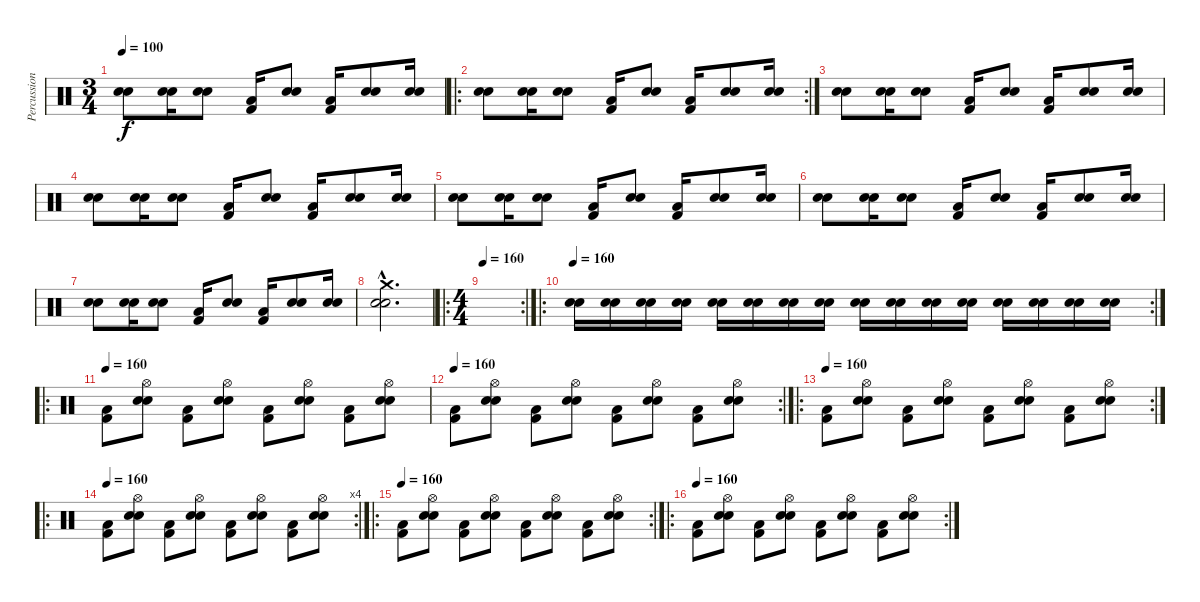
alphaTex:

\track ("Percussions" "Percussion") {instrument percussion}
\staff {score}
\articulation defaults
\ts (3 4)
\tempo 100
\clef neutral
\ks c
("Snare (hit) 2" "Electric Snare (hit)").8{dy f} ("Snare (hit) 2" "Electric Snare (hit)").16 ("Snare (hit) 2" "Electric Snare (hit)").8 ("Kick (hit) 2" "Low Floor Tom (hit)").16 ("Snare (hit) 2" "Electric Snare (hit)").8 ("Kick (hit) 2" "Low Floor Tom (hit)").16 ("Snare (hit) 2" "Electric Snare (hit)").8 ("Snare (hit) 2" "Electric Snare (hit)").16 |
\ro
\rc 2
("Snare (hit) 2" "Electric Snare (hit)").8 ("Snare (hit) 2" "Electric Snare (hit)").16 ("Snare (hit) 2" "Electric Snare (hit)").8 ("Kick (hit) 2" "Low Floor Tom (hit)").16 ("Snare (hit) 2" "Electric Snare (hit)").8 ("Kick (hit) 2" "Low Floor Tom (hit)").16 ("Snare (hit) 2" "Electric Snare (hit)").8 ("Snare (hit) 2" "Electric Snare (hit)").16 |
("Snare (hit) 2" "Electric Snare (hit)").8 ("Snare (hit) 2" "Electric Snare (hit)").16 ("Snare (hit) 2" "Electric Snare (hit)").8 ("Kick (hit) 2" "Low Floor Tom (hit)").16 ("Snare (hit) 2" "Electric Snare (hit)").8 ("Kick (hit) 2" "Low Floor Tom (hit)").16 ("Snare (hit) 2" "Electric Snare (hit)").8 ("Snare (hit) 2" "Electric Snare (hit)").16 |
("Snare (hit) 2" "Electric Snare (hit)").8 ("Snare (hit) 2" "Electric Snare (hit)").16 ("Snare (hit) 2" "Electric Snare (hit)").8 ("Kick (hit) 2" "Low Floor Tom (hit)").16 ("Snare (hit) 2" "Electric Snare (hit)").8 ("Kick (hit) 2" "Low Floor Tom (hit)").16 ("Snare (hit) 2" "Electric Snare (hit)").8 ("Snare (hit) 2" "Electric Snare (hit)").16 |
("Snare (hit) 2" "Electric Snare (hit)").8 ("Snare (hit) 2" "Electric Snare (hit)").16 ("Snare (hit) 2" "Electric Snare (hit)").8 ("Kick (hit) 2" "Low Floor Tom (hit)").16 ("Snare (hit) 2" "Electric Snare (hit)").8 ("Kick (hit) 2" "Low Floor Tom (hit)").16 ("Snare (hit) 2" "Electric Snare (hit)").8 ("Snare (hit) 2" "Electric Snare (hit)").16 |
("Snare (hit) 2" "Electric Snare (hit)").8 ("Snare (hit) 2" "Electric Snare (hit)").16 ("Snare (hit) 2" "Electric Snare (hit)").8 ("Kick (hit) 2" "Low Floor Tom (hit)").16 ("Snare (hit) 2" "Electric Snare (hit)").8 ("Kick (hit) 2" "Low Floor Tom (hit)").16 ("Snare (hit) 2" "Electric Snare (hit)").8 ("Snare (hit) 2" "Electric Snare (hit)").16 |
("Snare (hit) 2" "Electric Snare (hit)").8 ("Snare (hit) 2" "Electric Snare (hit)").16 ("Snare (hit) 2" "Electric Snare (hit)").8 ("Kick (hit) 2" "Low Floor Tom (hit)").16 ("Snare (hit) 2" "Electric Snare (hit)").8 ("Kick (hit) 2" "Low Floor Tom (hit)").16 ("Snare (hit) 2" "Electric Snare (hit)").8 ("Snare (hit) 2" "Electric Snare (hit)").16 |
("Crash medium (hit)"{hac} "Snare (hit) 2"{hac} "Electric Snare (hit)"{hac}).2{d} |
\ro
\rc 2
\ts (4 4)
\tempo 160
|
\ro
\rc 2
\tempo 160
("Snare (hit) 2" "Electric Snare (hit)").16 ("Snare (hit) 2" "Electric Snare (hit)").16 ("Snare (hit) 2" "Electric Snare (hit)").16 ("Snare (hit) 2" "Electric Snare (hit)").16 ("Snare (hit) 2" "Electric Snare (hit)").16 ("Snare (hit) 2" "Electric Snare (hit)").16 ("Snare (hit) 2" "Electric Snare (hit)").16 ("Snare (hit) 2" "Electric Snare (hit)").16 ("Snare (hit) 2" "Electric Snare (hit)").16 ("Snare (hit) 2" "Electric Snare (hit)").16 ("Snare (hit) 2" "Electric Snare (hit)").16 ("Snare (hit) 2" "Electric Snare (hit)").16 ("Snare (hit) 2" "Electric Snare (hit)").16 ("Snare (hit) 2" "Electric Snare (hit)").16 ("Snare (hit) 2" "Electric Snare (hit)").16 ("Snare (hit) 2" "Electric Snare (hit)").16 |
\ro
\tempo 160
("Kick (hit) 2" "Low Floor Tom (hit)").8 ("Hi-Hat (open)" "Snare (hit) 2" "Electric Snare (hit)").8 ("Kick (hit) 2" "Low Floor Tom (hit)").8 ("Hi-Hat (open)" "Snare (hit) 2" "Electric Snare (hit)").8 ("Kick (hit) 2" "Low Floor Tom (hit)").8 ("Hi-Hat (open)" "Snare (hit) 2" "Electric Snare (hit)").8 ("Kick (hit) 2" "Low Floor Tom (hit)").8 ("Hi-Hat (open)" "Snare (hit) 2" "Electric Snare (hit)").8 |
\rc 2
\tempo 160
("Kick (hit) 2" "Low Floor Tom (hit)").8 ("Hi-Hat (open)" "Snare (hit) 2" "Electric Snare (hit)").8 ("Kick (hit) 2" "Low Floor Tom (hit)").8 ("Hi-Hat (open)" "Snare (hit) 2" "Electric Snare (hit)").8 ("Kick (hit) 2" "Low Floor Tom (hit)").8 ("Hi-Hat (open)" "Snare (hit) 2" "Electric Snare (hit)").8 ("Kick (hit) 2" "Low Floor Tom (hit)").8 ("Hi-Hat (open)" "Snare (hit) 2" "Electric Snare (hit)").8 |
\ro
\rc 2
\tempo 160
("Kick (hit) 2" "Low Floor Tom (hit)").8 ("Hi-Hat (open)" "Snare (hit) 2" "Electric Snare (hit)").8 ("Kick (hit) 2" "Low Floor Tom (hit)").8 ("Hi-Hat (open)" "Snare (hit) 2" "Electric Snare (hit)").8 ("Kick (hit) 2" "Low Floor Tom (hit)").8 ("Hi-Hat (open)" "Snare (hit) 2" "Electric Snare (hit)").8 ("Kick (hit) 2" "Low Floor Tom (hit)").8 ("Hi-Hat (open)" "Snare (hit) 2" "Electric Snare (hit)").8 |
\ro
\rc 4
\tempo 160
("Kick (hit) 2" "Low Floor Tom (hit)").8 ("Hi-Hat (open)" "Snare (hit) 2" "Electric Snare (hit)").8 ("Kick (hit) 2" "Low Floor Tom (hit)").8 ("Hi-Hat (open)" "Snare (hit) 2" "Electric Snare (hit)").8 ("Kick (hit) 2" "Low Floor Tom (hit)").8 ("Hi-Hat (open)" "Snare (hit) 2" "Electric Snare (hit)").8 ("Kick (hit) 2" "Low Floor Tom (hit)").8 ("Hi-Hat (open)" "Snare (hit) 2" "Electric Snare (hit)").8 |
\ro
\rc 2
\tempo 160
("Kick (hit) 2" "Low Floor Tom (hit)").8 ("Hi-Hat (open)" "Snare (hit) 2" "Electric Snare (hit)").8 ("Kick (hit) 2" "Low Floor Tom (hit)").8 ("Hi-Hat (open)" "Snare (hit) 2" "Electric Snare (hit)").8 ("Kick (hit) 2" "Low Floor Tom (hit)").8 ("Hi-Hat (open)" "Snare (hit) 2" "Electric Snare (hit)").8 ("Kick (hit) 2" "Low Floor Tom (hit)").8 ("Hi-Hat (open)" "Snare (hit) 2" "Electric Snare (hit)").8 |
\ro
\rc 2
\tempo 160
("Kick (hit) 2" "Low Floor Tom (hit)").8 ("Hi-Hat (open)" "Snare (hit) 2" "Electric Snare (hit)").8 ("Kick (hit) 2" "Low Floor Tom (hit)").8 ("Hi-Hat (open)" "Snare (hit) 2" "Electric Snare (hit)").8 ("Kick (hit) 2" "Low Floor Tom (hit)").8 ("Hi-Hat (open)" "Snare (hit) 2" "Electric Snare (hit)").8 ("Kick (hit) 2" "Low Floor Tom (hit)").8 ("Hi-Hat (open)" "Snare (hit) 2" "Electric Snare (hit)").8
